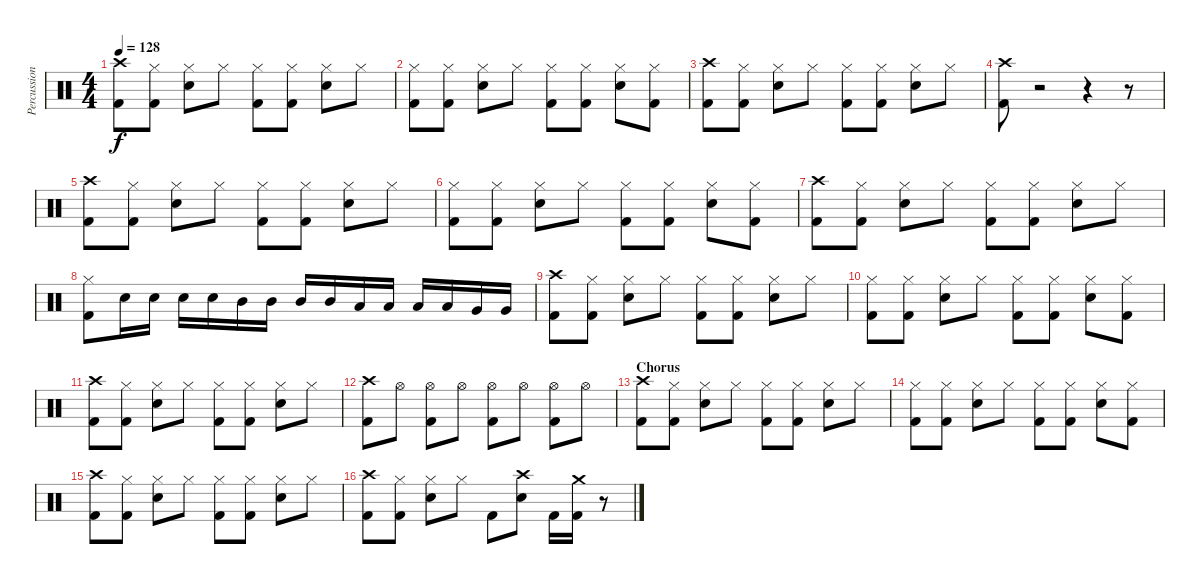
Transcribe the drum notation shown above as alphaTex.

\track ("Percussion" "Percussion") {instrument percussion}
\staff {score}
\articulation defaults
\ts (4 4)
\tempo 128
\clef neutral
\ks c
("Crash high (hit)" "Kick (hit) 2").8{dy f} ("Hi-Hat (closed)" "Kick (hit) 2").8 ("Hi-Hat (closed)" "Snare (hit) 2").8 "Hi-Hat (closed)".8 ("Hi-Hat (closed)" "Kick (hit) 2").8 ("Hi-Hat (closed)" "Kick (hit) 2").8 ("Hi-Hat (closed)" "Snare (hit) 2").8 "Hi-Hat (closed)".8 |
("Hi-Hat (closed)" "Kick (hit) 2").8 ("Hi-Hat (closed)" "Kick (hit) 2").8 ("Hi-Hat (closed)" "Snare (hit) 2").8 "Hi-Hat (closed)".8 ("Hi-Hat (closed)" "Kick (hit) 2").8 ("Hi-Hat (closed)" "Kick (hit) 2").8 ("Hi-Hat (closed)" "Snare (hit) 2").8 ("Hi-Hat (closed)" "Kick (hit) 2").8 |
("Crash high (hit)" "Kick (hit) 2").8 ("Hi-Hat (closed)" "Kick (hit) 2").8 ("Hi-Hat (closed)" "Snare (hit) 2").8 "Hi-Hat (closed)".8 ("Hi-Hat (closed)" "Kick (hit) 2").8 ("Hi-Hat (closed)" "Kick (hit) 2").8 ("Hi-Hat (closed)" "Snare (hit) 2").8 "Hi-Hat (closed)".8 |
("Crash high (hit)" "Kick (hit) 2").8 r.2 r.4 r.8 |
("Crash high (hit)" "Kick (hit) 2").8 ("Hi-Hat (closed)" "Kick (hit) 2").8 ("Hi-Hat (closed)" "Snare (hit) 2").8 "Hi-Hat (closed)".8 ("Hi-Hat (closed)" "Kick (hit) 2").8 ("Hi-Hat (closed)" "Kick (hit) 2").8 ("Hi-Hat (closed)" "Snare (hit) 2").8 "Hi-Hat (closed)".8 |
("Hi-Hat (closed)" "Kick (hit) 2").8 ("Hi-Hat (closed)" "Kick (hit) 2").8 ("Hi-Hat (closed)" "Snare (hit) 2").8 "Hi-Hat (closed)".8 ("Hi-Hat (closed)" "Kick (hit) 2").8 ("Hi-Hat (closed)" "Kick (hit) 2").8 ("Hi-Hat (closed)" "Snare (hit) 2").8 ("Hi-Hat (closed)" "Kick (hit) 2").8 |
("Crash high (hit)" "Kick (hit) 2").8 ("Hi-Hat (closed)" "Kick (hit) 2").8 ("Hi-Hat (closed)" "Snare (hit) 2").8 "Hi-Hat (closed)".8 ("Hi-Hat (closed)" "Kick (hit) 2").8 ("Hi-Hat (closed)" "Kick (hit) 2").8 ("Hi-Hat (closed)" "Snare (hit) 2").8 "Hi-Hat (closed)".8 |
("Hi-Hat (closed)" "Kick (hit) 2").8 "Snare (hit) 2".16 "Snare (hit) 2".16 "Snare (hit) 2".16 "Snare (hit) 2".16 "Mid Tom (hit)".16 "Mid Tom (hit)".16 "Mid Tom (hit)".16 "Mid Tom (hit)".16 "Low Tom (hit)".16 "Low Tom (hit)".16 "Low Tom (hit)".16 "Low Tom (hit)".16 "Very Low Tom (hit)".16 "Very Low Tom (hit)".16 |
("Crash high (hit)" "Kick (hit) 2").8 ("Hi-Hat (closed)" "Kick (hit) 2").8 ("Hi-Hat (closed)" "Snare (hit) 2").8 "Hi-Hat (closed)".8 ("Hi-Hat (closed)" "Kick (hit) 2").8 ("Hi-Hat (closed)" "Kick (hit) 2").8 ("Hi-Hat (closed)" "Snare (hit) 2").8 "Hi-Hat (closed)".8 |
("Hi-Hat (closed)" "Kick (hit) 2").8 ("Hi-Hat (closed)" "Kick (hit) 2").8 ("Hi-Hat (closed)" "Snare (hit) 2").8 "Hi-Hat (closed)".8 ("Hi-Hat (closed)" "Kick (hit) 2").8 ("Hi-Hat (closed)" "Kick (hit) 2").8 ("Hi-Hat (closed)" "Snare (hit) 2").8 ("Hi-Hat (closed)" "Kick (hit) 2").8 |
("Crash high (hit)" "Kick (hit) 2").8 ("Hi-Hat (closed)" "Kick (hit) 2").8 ("Hi-Hat (closed)" "Snare (hit) 2").8 "Hi-Hat (closed)".8 ("Hi-Hat (closed)" "Kick (hit) 2").8 ("Hi-Hat (closed)" "Kick (hit) 2").8 ("Hi-Hat (closed)" "Snare (hit) 2").8 "Hi-Hat (closed)".8 |
("Crash high (hit)" "Kick (hit) 2").8 "Hi-Hat (open)".8 ("Hi-Hat (open)" "Kick (hit) 2").8 "Hi-Hat (open)".8 ("Hi-Hat (open)" "Kick (hit) 2").8 "Hi-Hat (open)".8 ("Hi-Hat (open)" "Kick (hit) 2").8 "Hi-Hat (open)".8 |
\section ("" "Chorus")
("Crash high (hit)" "Kick (hit) 2").8 ("Hi-Hat (closed)" "Kick (hit) 2").8 ("Hi-Hat (closed)" "Snare (hit) 2").8 "Hi-Hat (closed)".8 ("Hi-Hat (closed)" "Kick (hit) 2").8 ("Hi-Hat (closed)" "Kick (hit) 2").8 ("Hi-Hat (closed)" "Snare (hit) 2").8 "Hi-Hat (closed)".8 |
("Hi-Hat (closed)" "Kick (hit) 2").8 ("Hi-Hat (closed)" "Kick (hit) 2").8 ("Hi-Hat (closed)" "Snare (hit) 2").8 "Hi-Hat (closed)".8 ("Hi-Hat (closed)" "Kick (hit) 2").8 ("Hi-Hat (closed)" "Kick (hit) 2").8 ("Hi-Hat (closed)" "Snare (hit) 2").8 ("Hi-Hat (closed)" "Kick (hit) 2").8 |
("Crash high (hit)" "Kick (hit) 2").8 ("Hi-Hat (closed)" "Kick (hit) 2").8 ("Hi-Hat (closed)" "Snare (hit) 2").8 "Hi-Hat (closed)".8 ("Hi-Hat (closed)" "Kick (hit) 2").8 ("Hi-Hat (closed)" "Kick (hit) 2").8 ("Hi-Hat (closed)" "Snare (hit) 2").8 "Hi-Hat (closed)".8 |
("Crash high (hit)" "Kick (hit) 2").8 ("Hi-Hat (closed)" "Kick (hit) 2").8 ("Hi-Hat (closed)" "Snare (hit) 2").8 "Hi-Hat (closed)".8 "Kick (hit) 2".8 ("Crash high (hit)" "Snare (hit) 2").8 "Kick (hit) 2".16 ("Crash medium (hit)" "Kick (hit) 2").16 r.8
